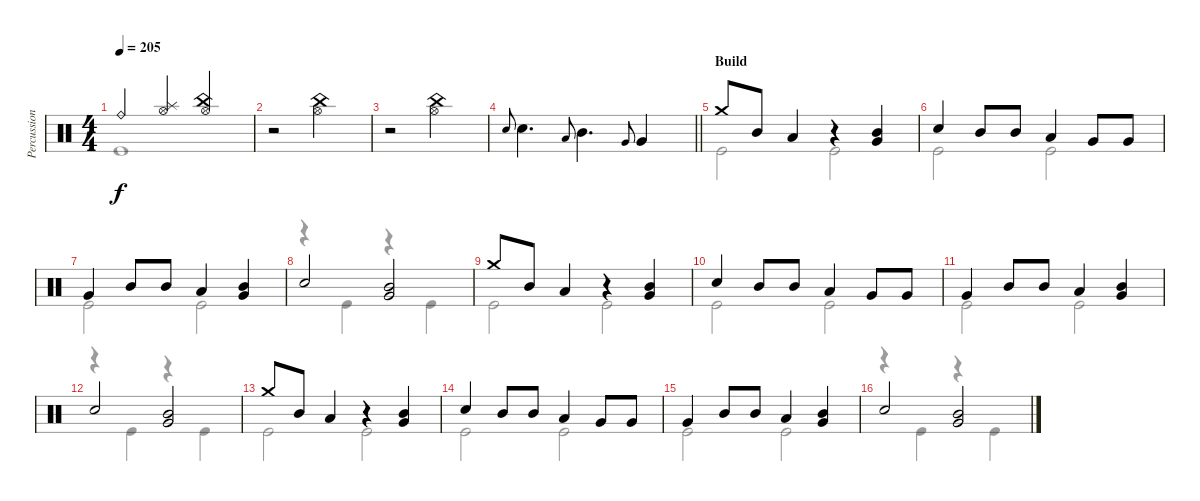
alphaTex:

\track ("Percussion" "Percussion") {instrument percussion}
\staff {score}
\articulation defaults
\voice
\ts (4 4)
\tempo 205
\clef neutral
\ks c "Ride (bell)".4{dy f}
("Splash (hit)" "Hi-Hat (open)").4 ("China (hit)" "Hi-Hat (open)").2 |
r.2 ("China (hit)" "Hi-Hat (open)").2 |
r.2 ("China (hit)" "Hi-Hat (open)").2 |
\barLineRight lightlight "Electric Snare (hit)".8{gr onbeat} "Electric Snare (hit)".4{d} "Low Tom (hit)".8{gr onbeat} "Mid Tom (hit)".4{d} "Very Low Tom (hit)".8{gr onbeat} "Very Low Tom (hit)".4
|
\section ("" "Build")
"Crash medium (hit)".8 "Mid Tom (hit)".8 "Low Tom (hit)".4 r.4 ("Mid Tom (hit)" "Very Low Tom (hit)").4 |
"Electric Snare (hit)".4 "Mid Tom (hit)".8 "Mid Tom (hit)".8 "Low Tom (hit)".4 "Very Low Tom (hit)".8 "Very Low Tom (hit)".8 |
"Very Low Tom (hit)".4 "Mid Tom (hit)".8 "Mid Tom (hit)".8 "Low Tom (hit)".4 ("Mid Tom (hit)" "Very Low Tom (hit)").4 |
"Electric Snare (hit)".2 ("Mid Tom (hit)" "Very Low Tom (hit)").2 |
"Crash medium (hit)".8 "Mid Tom (hit)".8 "Low Tom (hit)".4 r.4 ("Mid Tom (hit)" "Very Low Tom (hit)").4 |
"Electric Snare (hit)".4 "Mid Tom (hit)".8 "Mid Tom (hit)".8 "Low Tom (hit)".4 "Very Low Tom (hit)".8 "Very Low Tom (hit)".8 |
"Very Low Tom (hit)".4 "Mid Tom (hit)".8 "Mid Tom (hit)".8 "Low Tom (hit)".4 ("Mid Tom (hit)" "Very Low Tom (hit)").4 |
"Electric Snare (hit)".2 ("Mid Tom (hit)" "Very Low Tom (hit)").2 |
"Crash medium (hit)".8 "Mid Tom (hit)".8 "Low Tom (hit)".4 r.4 ("Mid Tom (hit)" "Very Low Tom (hit)").4 |
"Electric Snare (hit)".4 "Mid Tom (hit)".8 "Mid Tom (hit)".8 "Low Tom (hit)".4 "Very Low Tom (hit)".8 "Very Low Tom (hit)".8 |
"Very Low Tom (hit)".4 "Mid Tom (hit)".8 "Mid Tom (hit)".8 "Low Tom (hit)".4 ("Mid Tom (hit)" "Very Low Tom (hit)").4 |
"Electric Snare (hit)".2 ("Mid Tom (hit)" "Very Low Tom (hit)").2
\voice
\clef neutral
\ottava regular
\simile none
\ks c "Kick (hit)".1{dy f}
|
|
|
\barLineRight lightlight
|
"Kick (hit)".2 "Kick (hit)".2 |
"Kick (hit)".2 "Kick (hit)".2 |
"Kick (hit)".2 "Kick (hit)".2 |
r.4 "Kick (hit)".4 r.4 "Kick (hit)".4 |
"Kick (hit)".2 "Kick (hit)".2 |
"Kick (hit)".2 "Kick (hit)".2 |
"Kick (hit)".2 "Kick (hit)".2 |
r.4 "Kick (hit)".4 r.4 "Kick (hit)".4 |
"Kick (hit)".2 "Kick (hit)".2 |
"Kick (hit)".2 "Kick (hit)".2 |
"Kick (hit)".2 "Kick (hit)".2 |
r.4 "Kick (hit)".4 r.4 "Kick (hit)".4
